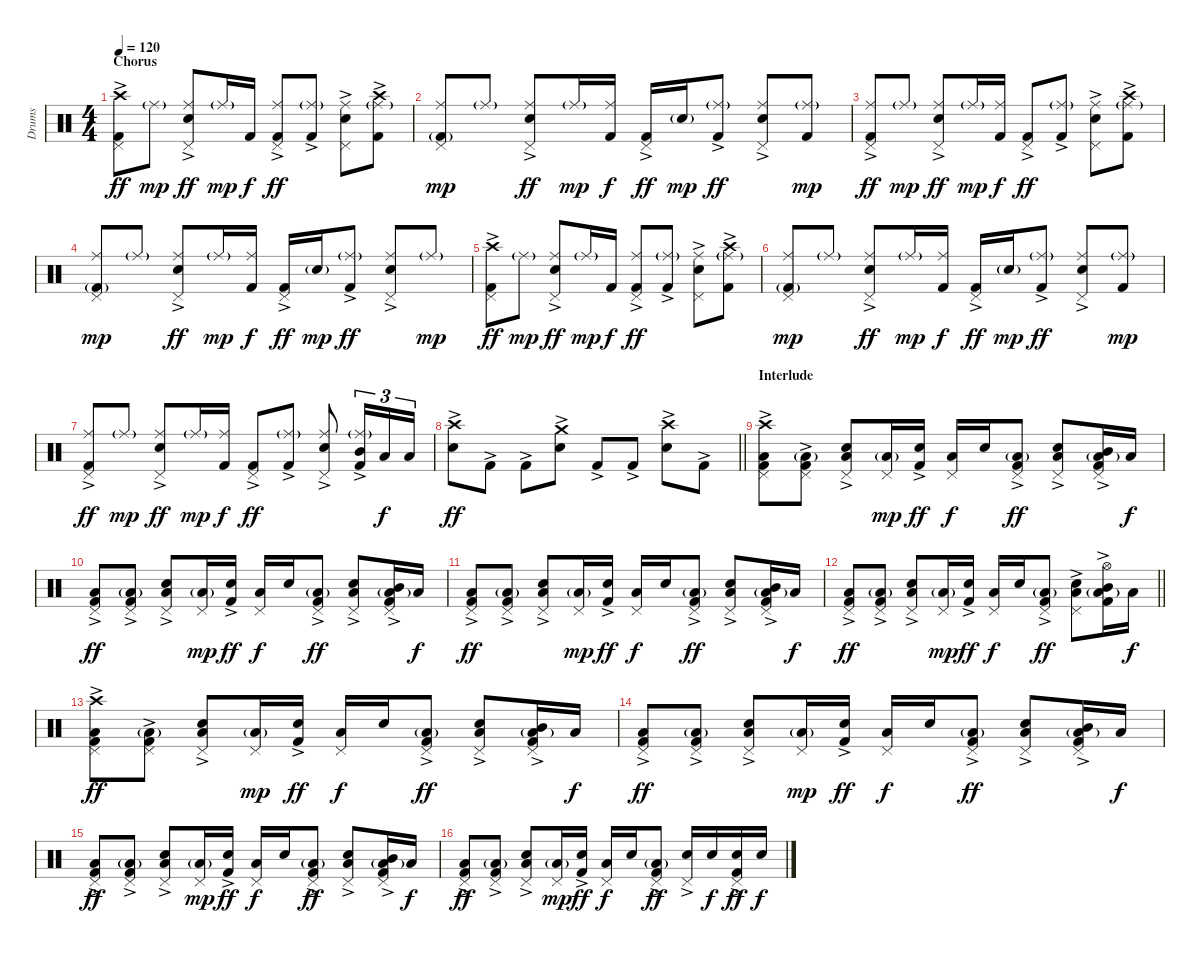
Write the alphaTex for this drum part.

\track ("Drums" "Drums") {instrument percussion}
\staff {score}
\articulation defaults
\ts (4 4)
\section ("" "Chorus")
\tempo 120
\clef neutral
\ks c
("Crash high (hit)" "Pedal Hi-Hat (hit)" "Kick (hit) 2"{ac}).8{dy ff} "Ride (middle)"{g}.8{dy mp} ("Ride (middle)" "Pedal Hi-Hat (hit)" "Snare (hit) 2"{ac}).8{dy ff} "Ride (middle)"{g}.16{dy mp} "Kick (hit) 2".16{dy f} ("Ride (middle)" "Pedal Hi-Hat (hit)" "Kick (hit) 2"{ac}).8{dy ff} ("Ride (middle)"{g} "Kick (hit) 2"{ac}).8 ("Ride (middle)" "Pedal Hi-Hat (hit)" "Snare (hit) 2"{ac}).8 ("Ride (middle)"{g} "Crash high (hit)" "Kick (hit) 2"{ac}).8 |
("Ride (middle)" "Pedal Hi-Hat (hit)" "Kick (hit) 2"{g}).8{dy mp} "Ride (middle)"{g}.8 ("Ride (middle)" "Pedal Hi-Hat (hit)" "Snare (hit) 2"{ac}).8{dy ff} "Ride (middle)"{g}.16{dy mp} ("Ride (middle)" "Kick (hit) 2").16{dy f} ("Pedal Hi-Hat (hit)" "Kick (hit) 2"{ac}).16{dy ff} "Snare (hit) 2"{g}.16{dy mp} ("Ride (middle)"{g} "Kick (hit) 2"{ac}).8{dy ff} ("Ride (middle)" "Pedal Hi-Hat (hit)" "Snare (hit) 2"{ac}).8 ("Ride (middle)"{g} "Kick (hit) 2").8{dy mp} |
("Ride (middle)" "Pedal Hi-Hat (hit)" "Kick (hit) 2"{ac}).8{dy ff} "Ride (middle)"{g}.8{dy mp} ("Ride (middle)" "Pedal Hi-Hat (hit)" "Snare (hit) 2"{ac}).8{dy ff} "Ride (middle)"{g}.16{dy mp} ("Ride (middle)" "Kick (hit) 2").16{dy f} ("Pedal Hi-Hat (hit)" "Kick (hit) 2"{ac}).8{dy ff} ("Ride (middle)"{g} "Kick (hit) 2"{ac}).8 ("Ride (middle)" "Pedal Hi-Hat (hit)" "Snare (hit) 2"{ac}).8 ("Ride (middle)"{g} "Crash high (hit)" "Kick (hit) 2"{ac}).8 |
("Ride (middle)" "Pedal Hi-Hat (hit)" "Kick (hit) 2"{g}).8{dy mp} "Ride (middle)"{g}.8 ("Ride (middle)" "Pedal Hi-Hat (hit)" "Snare (hit) 2"{ac}).8{dy ff} "Ride (middle)"{g}.16{dy mp} ("Ride (middle)" "Kick (hit) 2").16{dy f} ("Pedal Hi-Hat (hit)" "Kick (hit) 2"{ac}).16{dy ff} "Snare (hit) 2"{g}.16{dy mp} ("Ride (middle)"{g} "Kick (hit) 2"{ac}).8{dy ff} ("Ride (middle)" "Pedal Hi-Hat (hit)" "Snare (hit) 2"{ac}).8 "Ride (middle)"{g}.8{dy mp} |
("Crash high (hit)" "Pedal Hi-Hat (hit)" "Kick (hit) 2"{ac}).8{dy ff} "Ride (middle)"{g}.8{dy mp} ("Ride (middle)" "Pedal Hi-Hat (hit)" "Snare (hit) 2"{ac}).8{dy ff} "Ride (middle)"{g}.16{dy mp} "Kick (hit) 2".16{dy f} ("Ride (middle)" "Pedal Hi-Hat (hit)" "Kick (hit) 2"{ac}).8{dy ff} ("Ride (middle)"{g} "Kick (hit) 2"{ac}).8 ("Ride (middle)" "Pedal Hi-Hat (hit)" "Snare (hit) 2"{ac}).8 ("Ride (middle)"{g} "Crash high (hit)" "Kick (hit) 2"{ac}).8 |
("Ride (middle)" "Pedal Hi-Hat (hit)" "Kick (hit) 2"{g}).8{dy mp} "Ride (middle)"{g}.8 ("Ride (middle)" "Pedal Hi-Hat (hit)" "Snare (hit) 2"{ac}).8{dy ff} "Ride (middle)"{g}.16{dy mp} ("Ride (middle)" "Kick (hit) 2").16{dy f} ("Pedal Hi-Hat (hit)" "Kick (hit) 2"{ac}).16{dy ff} "Snare (hit) 2"{g}.16{dy mp} ("Ride (middle)"{g} "Kick (hit) 2"{ac}).8{dy ff} ("Ride (middle)" "Pedal Hi-Hat (hit)" "Snare (hit) 2"{ac}).8 ("Ride (middle)"{g} "Kick (hit) 2").8{dy mp} |
("Ride (middle)" "Pedal Hi-Hat (hit)" "Kick (hit) 2"{ac}).8{dy ff} "Ride (middle)"{g}.8{dy mp} ("Ride (middle)" "Pedal Hi-Hat (hit)" "Snare (hit) 2"{ac}).8{dy ff} "Ride (middle)"{g}.16{dy mp} ("Ride (middle)" "Kick (hit) 2").16{dy f} ("Pedal Hi-Hat (hit)" "Kick (hit) 2"{ac}).8{dy ff} ("Ride (middle)"{g} "Kick (hit) 2"{ac}).8 ("Ride (middle)" "Pedal Hi-Hat (hit)" "Snare (hit) 2"{ac}).8 ("Ride (middle)"{g} "Mid Tom (hit)" "Kick (hit) 2"{ac}).16{tu (3 2)} "Low Tom (hit)".16{tu (3 2) dy f} "Low Floor Tom (hit)".16{tu (3 2)} |
\barLineRight lightlight
("Crash high (hit)" "Snare (hit) 2"{ac}).8{dy ff} "Kick (hit) 2"{ac}.8 "Kick (hit) 2"{ac}.8 ("Crash medium (hit)" "Snare (hit) 2"{ac}).8 "Kick (hit) 2"{ac}.8 "Kick (hit) 2"{ac}.8 ("Crash high (hit)" "Snare (hit) 2"{ac}).8 "Kick (hit) 2"{ac}.8 |
\section ("" "Interlude")
("Pedal Hi-Hat (hit)" "Crash high (hit)" "Low Floor Tom (hit)" "Kick (hit) 2"{ac}).8 ("Pedal Hi-Hat (hit)" "Low Floor Tom (hit)"{g} "Kick (hit) 2"{ac}).8 ("Pedal Hi-Hat (hit)" "Snare (hit) 2"{ac} "Low Floor Tom (hit)").8 ("Pedal Hi-Hat (hit)" "Low Floor Tom (hit)"{g}).16{dy mp} ("Snare (hit) 2" "Kick (hit) 2"{ac}).16{dy ff} ("Pedal Hi-Hat (hit)" "Low Floor Tom (hit)").16{dy f} "Snare (hit) 2".16 ("Pedal Hi-Hat (hit)" "Low Floor Tom (hit)"{g} "Kick (hit) 2"{ac}).8{dy ff} ("Pedal Hi-Hat (hit)" "Snare (hit) 2"{ac} "Low Floor Tom (hit)").8 ("Pedal Hi-Hat (hit)" "Mid Tom (hit)" "Low Floor Tom (hit)"{g} "Kick (hit) 2"{ac}).16 "Low Tom (hit)".16{dy f} |
("Pedal Hi-Hat (hit)" "Low Floor Tom (hit)" "Kick (hit) 2"{ac}).8{dy ff} ("Pedal Hi-Hat (hit)" "Low Floor Tom (hit)"{g} "Kick (hit) 2"{ac}).8 ("Pedal Hi-Hat (hit)" "Snare (hit) 2"{ac} "Low Floor Tom (hit)").8 ("Pedal Hi-Hat (hit)" "Low Floor Tom (hit)"{g}).16{dy mp} ("Snare (hit) 2" "Kick (hit) 2"{ac}).16{dy ff} ("Pedal Hi-Hat (hit)" "Low Floor Tom (hit)").16{dy f} "Snare (hit) 2".16 ("Pedal Hi-Hat (hit)" "Low Floor Tom (hit)"{g} "Kick (hit) 2"{ac}).8{dy ff} ("Pedal Hi-Hat (hit)" "Snare (hit) 2"{ac} "Low Floor Tom (hit)").8 ("Pedal Hi-Hat (hit)" "Mid Tom (hit)" "Low Floor Tom (hit)"{g} "Kick (hit) 2"{ac}).16 "Low Tom (hit)".16{dy f} |
("Pedal Hi-Hat (hit)" "Low Floor Tom (hit)" "Kick (hit) 2"{ac}).8{dy ff} ("Pedal Hi-Hat (hit)" "Low Floor Tom (hit)"{g} "Kick (hit) 2"{ac}).8 ("Pedal Hi-Hat (hit)" "Snare (hit) 2"{ac} "Low Floor Tom (hit)").8 ("Pedal Hi-Hat (hit)" "Low Floor Tom (hit)"{g}).16{dy mp} ("Snare (hit) 2" "Kick (hit) 2"{ac}).16{dy ff} ("Pedal Hi-Hat (hit)" "Low Floor Tom (hit)").16{dy f} "Snare (hit) 2".16 ("Pedal Hi-Hat (hit)" "Low Floor Tom (hit)"{g} "Kick (hit) 2"{ac}).8{dy ff} ("Pedal Hi-Hat (hit)" "Snare (hit) 2"{ac} "Low Floor Tom (hit)").8 ("Pedal Hi-Hat (hit)" "Mid Tom (hit)" "Low Floor Tom (hit)"{g} "Kick (hit) 2"{ac}).16 "Low Tom (hit)".16{dy f} |
\barLineRight lightlight
("Pedal Hi-Hat (hit)" "Low Floor Tom (hit)" "Kick (hit) 2"{ac}).8{dy ff} ("Pedal Hi-Hat (hit)" "Low Floor Tom (hit)"{g} "Kick (hit) 2"{ac}).8 ("Pedal Hi-Hat (hit)" "Snare (hit) 2"{ac} "Low Floor Tom (hit)").8 ("Pedal Hi-Hat (hit)" "Low Floor Tom (hit)"{g}).16{dy mp} ("Snare (hit) 2" "Kick (hit) 2"{ac}).16{dy ff} ("Pedal Hi-Hat (hit)" "Low Floor Tom (hit)").16{dy f} "Snare (hit) 2".16 ("Pedal Hi-Hat (hit)" "Low Floor Tom (hit)"{g} "Kick (hit) 2"{ac}).8{dy ff} ("Pedal Hi-Hat (hit)" "Snare (hit) 2"{ac} "Low Floor Tom (hit)").8 ("Hi-Hat (open)" "Mid Tom (hit)" "Low Floor Tom (hit)"{g} "Kick (hit) 2"{ac}).16 "Low Tom (hit)".16{dy f} |
("Pedal Hi-Hat (hit)" "Crash high (hit)" "Low Floor Tom (hit)" "Kick (hit) 2"{ac}).8{dy ff} ("Pedal Hi-Hat (hit)" "Low Floor Tom (hit)"{g} "Kick (hit) 2"{ac}).8 ("Pedal Hi-Hat (hit)" "Snare (hit) 2"{ac} "Low Floor Tom (hit)").8 ("Pedal Hi-Hat (hit)" "Low Floor Tom (hit)"{g}).16{dy mp} ("Snare (hit) 2" "Kick (hit) 2"{ac}).16{dy ff} ("Pedal Hi-Hat (hit)" "Low Floor Tom (hit)").16{dy f} "Snare (hit) 2".16 ("Pedal Hi-Hat (hit)" "Low Floor Tom (hit)"{g} "Kick (hit) 2"{ac}).8{dy ff} ("Pedal Hi-Hat (hit)" "Snare (hit) 2"{ac} "Low Floor Tom (hit)").8 ("Pedal Hi-Hat (hit)" "Mid Tom (hit)" "Low Floor Tom (hit)"{g} "Kick (hit) 2"{ac}).16 "Low Tom (hit)".16{dy f} |
("Pedal Hi-Hat (hit)" "Low Floor Tom (hit)" "Kick (hit) 2"{ac}).8{dy ff} ("Pedal Hi-Hat (hit)" "Low Floor Tom (hit)"{g} "Kick (hit) 2"{ac}).8 ("Pedal Hi-Hat (hit)" "Snare (hit) 2"{ac} "Low Floor Tom (hit)").8 ("Pedal Hi-Hat (hit)" "Low Floor Tom (hit)"{g}).16{dy mp} ("Snare (hit) 2" "Kick (hit) 2"{ac}).16{dy ff} ("Pedal Hi-Hat (hit)" "Low Floor Tom (hit)").16{dy f} "Snare (hit) 2".16 ("Pedal Hi-Hat (hit)" "Low Floor Tom (hit)"{g} "Kick (hit) 2"{ac}).8{dy ff} ("Pedal Hi-Hat (hit)" "Snare (hit) 2"{ac} "Low Floor Tom (hit)").8 ("Pedal Hi-Hat (hit)" "Mid Tom (hit)" "Low Floor Tom (hit)"{g} "Kick (hit) 2"{ac}).16 "Low Tom (hit)".16{dy f} |
("Pedal Hi-Hat (hit)" "Low Floor Tom (hit)" "Kick (hit) 2"{ac}).8{dy ff} ("Pedal Hi-Hat (hit)" "Low Floor Tom (hit)"{g} "Kick (hit) 2"{ac}).8 ("Pedal Hi-Hat (hit)" "Snare (hit) 2"{ac} "Low Floor Tom (hit)").8 ("Pedal Hi-Hat (hit)" "Low Floor Tom (hit)"{g}).16{dy mp} ("Snare (hit) 2" "Kick (hit) 2"{ac}).16{dy ff} ("Pedal Hi-Hat (hit)" "Low Floor Tom (hit)").16{dy f} "Snare (hit) 2".16 ("Pedal Hi-Hat (hit)" "Low Floor Tom (hit)"{g} "Kick (hit) 2"{ac}).8{dy ff} ("Pedal Hi-Hat (hit)" "Snare (hit) 2"{ac} "Low Floor Tom (hit)").8 ("Pedal Hi-Hat (hit)" "Mid Tom (hit)" "Low Floor Tom (hit)"{g} "Kick (hit) 2"{ac}).16 "Low Tom (hit)".16{dy f} |
("Pedal Hi-Hat (hit)" "Low Floor Tom (hit)" "Kick (hit) 2"{ac}).8{dy ff} ("Pedal Hi-Hat (hit)" "Low Floor Tom (hit)"{g} "Kick (hit) 2"{ac}).8 ("Pedal Hi-Hat (hit)" "Snare (hit) 2"{ac} "Low Floor Tom (hit)").8 ("Pedal Hi-Hat (hit)" "Low Floor Tom (hit)"{g}).16{dy mp} ("Snare (hit) 2" "Kick (hit) 2"{ac}).16{dy ff} ("Pedal Hi-Hat (hit)" "Low Floor Tom (hit)").16{dy f} "Snare (hit) 2".16 ("Pedal Hi-Hat (hit)" "Low Floor Tom (hit)"{g} "Kick (hit) 2"{ac}).8{dy ff} ("Pedal Hi-Hat (hit)" "Snare (hit) 2"{ac}).16 "Snare (hit) 2".16{dy f} ("Pedal Hi-Hat (hit)" "Snare (hit) 2" "Kick (hit) 2"{ac}).16{dy ff} "Snare (hit) 2".16{dy f}
